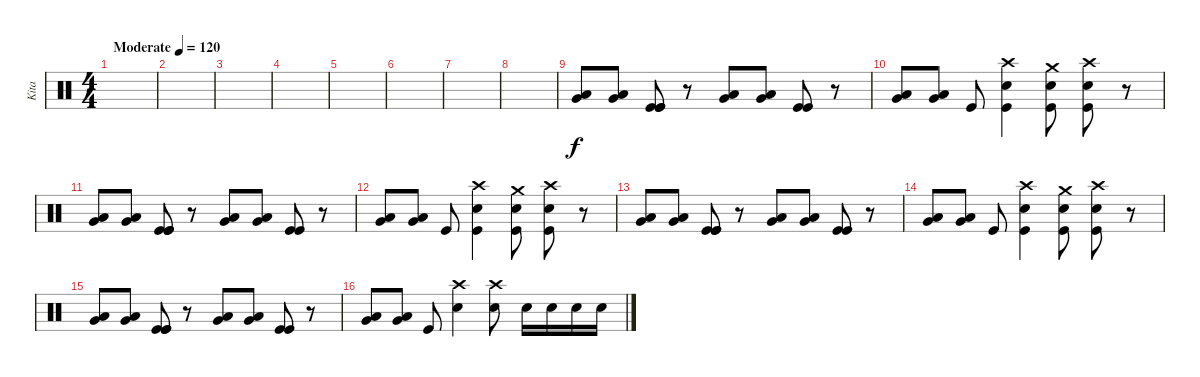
\track ("Kita" "Kita") {instrument percussion}
\staff {score}
\articulation defaults
\ts (4 4)
\tempo (120 "Moderate")
\clef neutral
\ks c
|
|
|
|
|
|
|
|
("Very Low Tom (hit)" "Low Floor Tom (hit)").8 ("Low Floor Tom (hit)" "Very Low Tom (hit)").8 ("Kick (hit)" "Kick (hit)" "Kick (hit)").8 r.8 ("Very Low Tom (hit)" "Low Tom (hit)").8 ("Very Low Tom (hit)" "Low Tom (hit)").8 ("Kick (hit)" "Kick (hit)").8 r.8 |
("Very Low Tom (hit)" "Low Floor Tom (hit)").8 ("Low Floor Tom (hit)" "Very Low Tom (hit)").8 "Kick (hit)".8 ("Snare (hit) 2" "Crash high (hit)" "Kick (hit)").4 ("Snare (hit) 2" "Crash medium (hit)" "Kick (hit)").8 ("Crash high (hit)" "Snare (hit) 2" "Kick (hit)").8 r.8 |
("Very Low Tom (hit)" "Low Floor Tom (hit)").8 ("Low Floor Tom (hit)" "Very Low Tom (hit)").8 ("Kick (hit)" "Kick (hit)" "Kick (hit)").8 r.8 ("Very Low Tom (hit)" "Low Tom (hit)").8 ("Very Low Tom (hit)" "Low Tom (hit)").8 ("Kick (hit)" "Kick (hit)").8 r.8 |
("Very Low Tom (hit)" "Low Floor Tom (hit)").8 ("Low Floor Tom (hit)" "Very Low Tom (hit)").8 "Kick (hit)".8 ("Snare (hit) 2" "Crash high (hit)" "Kick (hit)").4 ("Snare (hit) 2" "Crash medium (hit)" "Kick (hit)").8 ("Crash high (hit)" "Snare (hit) 2" "Kick (hit)").8 r.8 |
("Very Low Tom (hit)" "Low Floor Tom (hit)").8 ("Low Floor Tom (hit)" "Very Low Tom (hit)").8 ("Kick (hit)" "Kick (hit)" "Kick (hit)").8 r.8 ("Very Low Tom (hit)" "Low Tom (hit)").8 ("Very Low Tom (hit)" "Low Tom (hit)").8 ("Kick (hit)" "Kick (hit)").8 r.8 |
("Very Low Tom (hit)" "Low Floor Tom (hit)").8 ("Low Floor Tom (hit)" "Very Low Tom (hit)").8 "Kick (hit)".8 ("Snare (hit) 2" "Crash high (hit)" "Kick (hit)").4 ("Snare (hit) 2" "Crash medium (hit)" "Kick (hit)").8 ("Crash high (hit)" "Snare (hit) 2" "Kick (hit)").8 r.8 |
("Very Low Tom (hit)" "Low Floor Tom (hit)").8 ("Low Floor Tom (hit)" "Very Low Tom (hit)").8 ("Kick (hit)" "Kick (hit)" "Kick (hit)").8 r.8 ("Very Low Tom (hit)" "Low Tom (hit)").8 ("Very Low Tom (hit)" "Low Tom (hit)").8 ("Kick (hit)" "Kick (hit)").8 r.8 |
("Very Low Tom (hit)" "Low Floor Tom (hit)").8 ("Low Floor Tom (hit)" "Very Low Tom (hit)").8 "Kick (hit)".8 ("Snare (hit) 2" "Crash high (hit)").4 ("Snare (hit) 2" "Crash high (hit)").8 "Snare (hit) 2".16 "Snare (hit) 2".16 "Snare (hit) 2".16 "Snare (hit) 2".16
